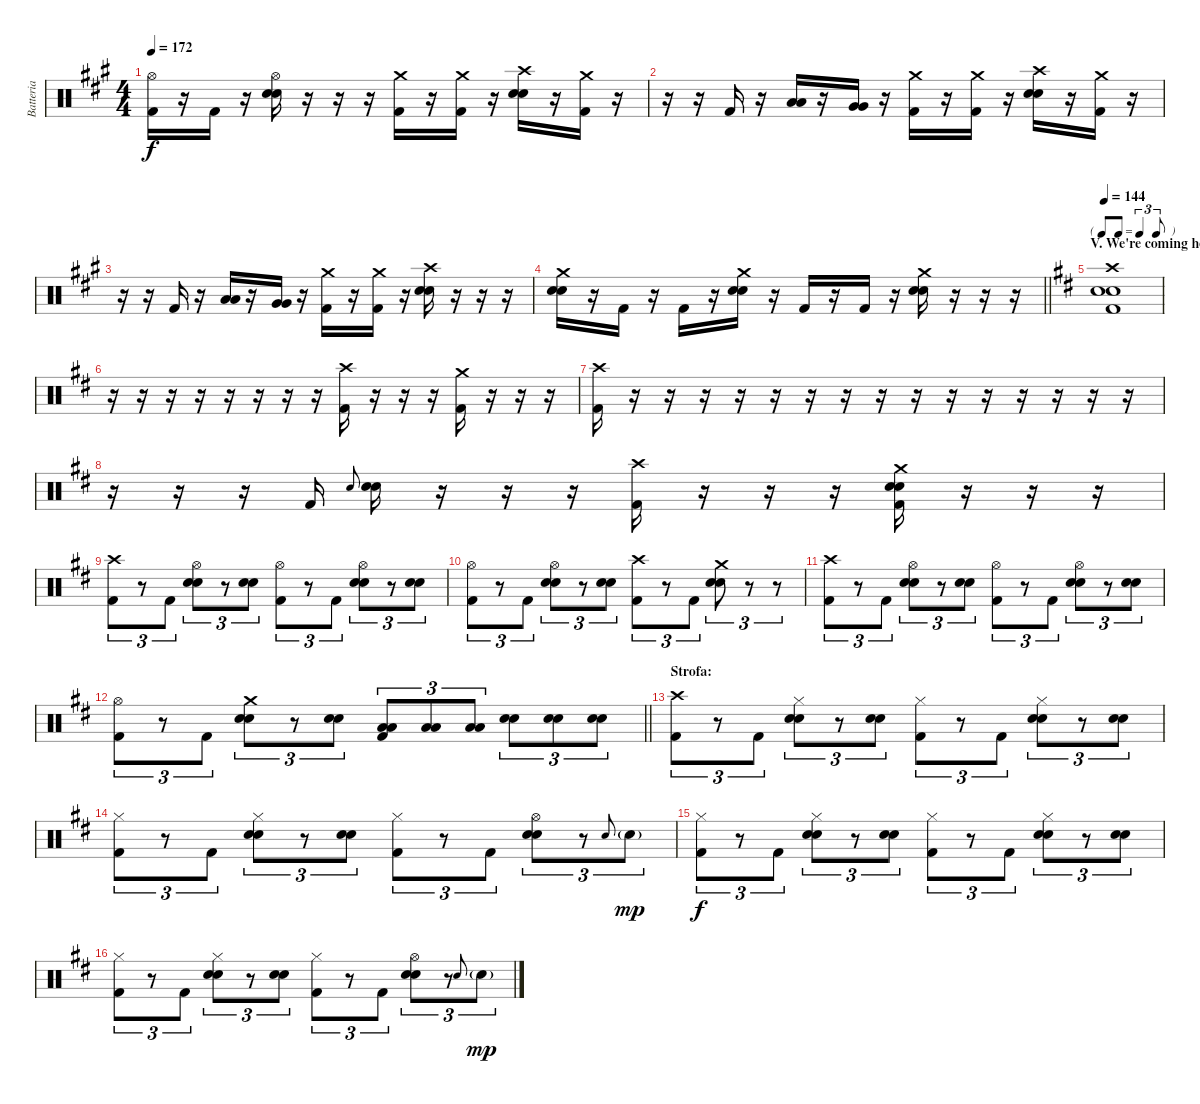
\track ("Batteria" "Batteria") {instrument percussion}
\staff {score}
\articulation defaults
\ts (4 4)
\tempo 172
\clef neutral
\ks a
("Kick (hit) 2" "Hi-Hat (open)").16{dy f} r.16 "Kick (hit) 2".16 r.16 ("Snare (hit) 2" "Snare (hit) 2" "Hi-Hat (open)").16 r.16 r.16 r.16 ("Kick (hit) 2" "Crash medium (hit)").16 r.16 ("Kick (hit) 2" "Crash medium (hit)").16 r.16 ("Snare (hit) 2" "Snare (hit) 2" "Crash high (hit)").16 r.16 ("Kick (hit) 2" "Crash medium (hit)").16 r.16 |
r.16 r.16 "Kick (hit) 2".16 r.16 ("Low Tom (hit)" "Low Tom (hit)").16 r.16 ("Very Low Tom (hit)" "Very Low Tom (hit)").16 r.16 ("Kick (hit) 2" "Crash medium (hit)").16 r.16 ("Kick (hit) 2" "Crash medium (hit)").16 r.16 ("Snare (hit) 2" "Snare (hit) 2" "Crash high (hit)").16 r.16 ("Kick (hit) 2" "Crash medium (hit)").16 r.16 |
r.16 r.16 "Kick (hit) 2".16 r.16 ("Low Tom (hit)" "Low Tom (hit)").16 r.16 ("Very Low Tom (hit)" "Very Low Tom (hit)").16 r.16 ("Kick (hit) 2" "Crash medium (hit)").16 r.16 ("Kick (hit) 2" "Crash medium (hit)").16 r.16 ("Snare (hit) 2" "Snare (hit) 2" "Crash high (hit)").16 r.16 r.16 r.16 |
\barLineRight lightlight
("Snare (hit) 2" "Snare (hit) 2" "Crash medium (hit)").16 r.16 "Kick (hit) 2".16 r.16 "Kick (hit) 2".16 r.16 ("Snare (hit) 2" "Snare (hit) 2" "Crash medium (hit)").16 r.16 "Kick (hit) 2".16 r.16 "Kick (hit) 2".16 r.16 ("Snare (hit) 2" "Snare (hit) 2" "Crash medium (hit)").16 r.16 r.16 r.16 |
\tf triplet8th
\section ("" "V. We're coming home again")
\tempo 144
\ks d
("Kick (hit) 2" "Snare (hit) 2" "Snare (hit) 2" "Crash high (hit)").1 |
r.16 r.16 r.16 r.16 r.16 r.16 r.16 r.16 ("Kick (hit) 2" "Crash high (hit)").16 r.16 r.16 r.16 ("Kick (hit) 2" "Crash medium (hit)").16 r.16 r.16 r.16 |
("Kick (hit) 2" "Crash high (hit)").16 r.16 r.16 r.16 r.16 r.16 r.16 r.16 r.16 r.16 r.16 r.16 r.16 r.16 r.16 r.16 |
r.16 r.16 r.16 "Kick (hit) 2".16 "Snare (hit) 2".8{gr onbeat} ("Snare (hit) 2" "Snare (hit) 2").16 r.16 r.16 r.16 ("Kick (hit) 2" "Crash high (hit)").16 r.16 r.16 r.16 ("Kick (hit) 2" "Snare (hit) 2" "Snare (hit) 2" "Crash medium (hit)").16 r.16 r.16 r.16 |
("Kick (hit) 2" "Crash high (hit)").8{tu (3 2)} r.8{tu (3 2)} "Kick (hit) 2".8{tu (3 2)} ("Snare (hit) 2" "Snare (hit) 2" "Hi-Hat (open)").8{tu (3 2)} r.8{tu (3 2)} ("Snare (hit) 2" "Snare (hit) 2").8{tu (3 2)} ("Kick (hit) 2" "Hi-Hat (open)").8{tu (3 2)} r.8{tu (3 2)} "Kick (hit) 2".8{tu (3 2)} ("Snare (hit) 2" "Snare (hit) 2" "Hi-Hat (open)").8{tu (3 2)} r.8{tu (3 2)} ("Snare (hit) 2" "Snare (hit) 2").8{tu (3 2)} |
("Kick (hit) 2" "Hi-Hat (open)").8{tu (3 2)} r.8{tu (3 2)} "Kick (hit) 2".8{tu (3 2)} ("Snare (hit) 2" "Snare (hit) 2" "Hi-Hat (open)").8{tu (3 2)} r.8{tu (3 2)} ("Snare (hit) 2" "Snare (hit) 2").8{tu (3 2)} ("Kick (hit) 2" "Crash high (hit)").8{tu (3 2)} r.8{tu (3 2)} "Kick (hit) 2".8{tu (3 2)} ("Snare (hit) 2" "Snare (hit) 2" "Crash medium (hit)").8{tu (3 2)} r.8{tu (3 2)} r.8{tu (3 2)} |
("Kick (hit) 2" "Crash high (hit)").8{tu (3 2)} r.8{tu (3 2)} "Kick (hit) 2".8{tu (3 2)} ("Snare (hit) 2" "Snare (hit) 2" "Hi-Hat (open)").8{tu (3 2)} r.8{tu (3 2)} ("Snare (hit) 2" "Snare (hit) 2").8{tu (3 2)} ("Kick (hit) 2" "Hi-Hat (open)").8{tu (3 2)} r.8{tu (3 2)} "Kick (hit) 2".8{tu (3 2)} ("Snare (hit) 2" "Snare (hit) 2" "Hi-Hat (open)").8{tu (3 2)} r.8{tu (3 2)} ("Snare (hit) 2" "Snare (hit) 2").8{tu (3 2)} |
\barLineRight lightlight
("Kick (hit) 2" "Hi-Hat (open)").8{tu (3 2)} r.8{tu (3 2)} "Kick (hit) 2".8{tu (3 2)} ("Snare (hit) 2" "Snare (hit) 2" "Crash medium (hit)").8{tu (3 2)} r.8{tu (3 2)} ("Snare (hit) 2" "Snare (hit) 2").8{tu (3 2)} ("Kick (hit) 2" "Low Tom (hit)" "Low Tom (hit)").8{tu (3 2)} ("Low Tom (hit)" "Low Tom (hit)").8{tu (3 2)} ("Low Tom (hit)" "Low Tom (hit)").8{tu (3 2)} ("Snare (hit) 2" "Snare (hit) 2").8{tu (3 2)} ("Snare (hit) 2" "Snare (hit) 2").8{tu (3 2)} ("Snare (hit) 2" "Snare (hit) 2").8{tu (3 2)} |
\section ("" "Strofa:")
("Kick (hit) 2" "Crash high (hit)").8{tu (3 2)} r.8{tu (3 2)} "Kick (hit) 2".8{tu (3 2)} ("Snare (hit) 2" "Snare (hit) 2" "Hi-Hat (closed)").8{tu (3 2)} r.8{tu (3 2)} ("Snare (hit) 2" "Snare (hit) 2").8{tu (3 2)} ("Kick (hit) 2" "Hi-Hat (closed)").8{tu (3 2)} r.8{tu (3 2)} "Kick (hit) 2".8{tu (3 2)} ("Snare (hit) 2" "Snare (hit) 2" "Hi-Hat (closed)").8{tu (3 2)} r.8{tu (3 2)} ("Snare (hit) 2" "Snare (hit) 2").8{tu (3 2)} |
("Kick (hit) 2" "Hi-Hat (closed)").8{tu (3 2)} r.8{tu (3 2)} "Kick (hit) 2".8{tu (3 2)} ("Snare (hit) 2" "Snare (hit) 2" "Hi-Hat (closed)").8{tu (3 2)} r.8{tu (3 2)} ("Snare (hit) 2" "Snare (hit) 2").8{tu (3 2)} ("Kick (hit) 2" "Hi-Hat (closed)").8{tu (3 2)} r.8{tu (3 2)} "Kick (hit) 2".8{tu (3 2)} ("Snare (hit) 2" "Snare (hit) 2" "Hi-Hat (open)").8{tu (3 2)} r.8{tu (3 2)} "Snare (hit) 2".8{gr onbeat} "Snare (hit) 2"{g}.8{tu (3 2) dy mp} |
("Kick (hit) 2" "Hi-Hat (closed)").8{tu (3 2) dy f} r.8{tu (3 2)} "Kick (hit) 2".8{tu (3 2)} ("Snare (hit) 2" "Snare (hit) 2" "Hi-Hat (closed)").8{tu (3 2)} r.8{tu (3 2)} ("Snare (hit) 2" "Snare (hit) 2").8{tu (3 2)} ("Kick (hit) 2" "Hi-Hat (closed)").8{tu (3 2)} r.8{tu (3 2)} "Kick (hit) 2".8{tu (3 2)} ("Snare (hit) 2" "Snare (hit) 2" "Hi-Hat (closed)").8{tu (3 2)} r.8{tu (3 2)} ("Snare (hit) 2" "Snare (hit) 2").8{tu (3 2)} |
("Kick (hit) 2" "Hi-Hat (closed)").8{tu (3 2)} r.8{tu (3 2)} "Kick (hit) 2".8{tu (3 2)} ("Snare (hit) 2" "Snare (hit) 2" "Hi-Hat (closed)").8{tu (3 2)} r.8{tu (3 2)} ("Snare (hit) 2" "Snare (hit) 2").8{tu (3 2)} ("Kick (hit) 2" "Hi-Hat (closed)").8{tu (3 2)} r.8{tu (3 2)} "Kick (hit) 2".8{tu (3 2)} ("Snare (hit) 2" "Snare (hit) 2" "Hi-Hat (open)").8{tu (3 2)} r.8{tu (3 2)} "Snare (hit) 2".8{gr onbeat} "Snare (hit) 2"{g}.8{tu (3 2) dy mp}
